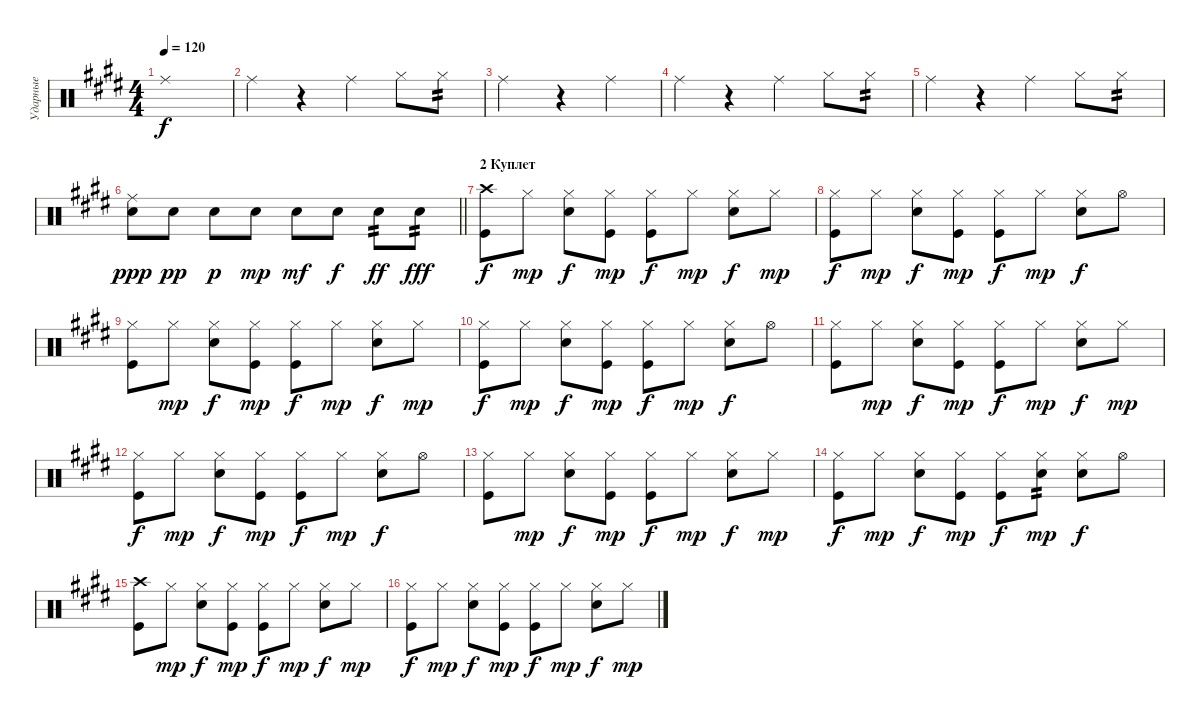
\track ("Ударные" "Ударные") {instrument percussion}
\staff {score}
\articulation defaults
\ts (4 4)
\tempo 120
\clef neutral
\ks e "Ride (middle)".1{dy f}
|
"Ride (middle)".4 r.4 "Ride (middle)".4 "Hi-Hat (closed)".8 "Hi-Hat (closed)".8{tp 2} |
"Ride (middle)".2 r.4 "Ride (middle)".4 |
"Ride (middle)".4 r.4 "Ride (middle)".4 "Hi-Hat (closed)".8 "Hi-Hat (closed)".8{tp 2} |
"Ride (middle)".4 r.4 "Ride (middle)".4 "Hi-Hat (closed)".8 "Hi-Hat (closed)".8{tp 2} |
\barLineRight lightlight
("Ride (middle)" "Snare (hit) 2").8{dy ppp} "Snare (hit) 2".8{dy pp} "Snare (hit) 2".8{dy p} "Snare (hit) 2".8{dy mp} "Snare (hit) 2".8{dy mf} "Snare (hit) 2".8{dy f} "Snare (hit) 2".8{tp 2 dy ff} "Snare (hit) 2".8{tp 2 dy fff} |
\section ("" "2 Куплет")
("Crash high (hit)" "Kick (hit)").8{dy f} "Hi-Hat (closed)".8{dy mp} ("Hi-Hat (closed)" "Snare (hit) 2").8{dy f} ("Hi-Hat (closed)" "Kick (hit)").8{dy mp} ("Hi-Hat (closed)" "Kick (hit)").8{dy f} "Hi-Hat (closed)".8{dy mp} ("Hi-Hat (closed)" "Snare (hit) 2").8{dy f} "Hi-Hat (closed)".8{dy mp} |
("Hi-Hat (closed)" "Kick (hit)").8{dy f} "Hi-Hat (closed)".8{dy mp} ("Hi-Hat (closed)" "Snare (hit) 2").8{dy f} ("Hi-Hat (closed)" "Kick (hit)").8{dy mp} ("Hi-Hat (closed)" "Kick (hit)").8{dy f} "Hi-Hat (closed)".8{dy mp} ("Hi-Hat (closed)" "Snare (hit) 2").8{dy f} "Hi-Hat (open)".8 |
("Hi-Hat (closed)" "Kick (hit)").8 "Hi-Hat (closed)".8{dy mp} ("Hi-Hat (closed)" "Snare (hit) 2").8{dy f} ("Hi-Hat (closed)" "Kick (hit)").8{dy mp} ("Hi-Hat (closed)" "Kick (hit)").8{dy f} "Hi-Hat (closed)".8{dy mp} ("Hi-Hat (closed)" "Snare (hit) 2").8{dy f} "Hi-Hat (closed)".8{dy mp} |
("Hi-Hat (closed)" "Kick (hit)").8{dy f} "Hi-Hat (closed)".8{dy mp} ("Hi-Hat (closed)" "Snare (hit) 2").8{dy f} ("Hi-Hat (closed)" "Kick (hit)").8{dy mp} ("Hi-Hat (closed)" "Kick (hit)").8{dy f} "Hi-Hat (closed)".8{dy mp} ("Hi-Hat (closed)" "Snare (hit) 2").8{dy f} "Hi-Hat (open)".8 |
("Hi-Hat (closed)" "Kick (hit)").8 "Hi-Hat (closed)".8{dy mp} ("Hi-Hat (closed)" "Snare (hit) 2").8{dy f} ("Hi-Hat (closed)" "Kick (hit)").8{dy mp} ("Hi-Hat (closed)" "Kick (hit)").8{dy f} "Hi-Hat (closed)".8{dy mp} ("Hi-Hat (closed)" "Snare (hit) 2").8{dy f} "Hi-Hat (closed)".8{dy mp} |
("Hi-Hat (closed)" "Kick (hit)").8{dy f} "Hi-Hat (closed)".8{dy mp} ("Hi-Hat (closed)" "Snare (hit) 2").8{dy f} ("Hi-Hat (closed)" "Kick (hit)").8{dy mp} ("Hi-Hat (closed)" "Kick (hit)").8{dy f} "Hi-Hat (closed)".8{dy mp} ("Hi-Hat (closed)" "Snare (hit) 2").8{dy f} "Hi-Hat (open)".8 |
("Hi-Hat (closed)" "Kick (hit)").8 "Hi-Hat (closed)".8{dy mp} ("Hi-Hat (closed)" "Snare (hit) 2").8{dy f} ("Hi-Hat (closed)" "Kick (hit)").8{dy mp} ("Hi-Hat (closed)" "Kick (hit)").8{dy f} "Hi-Hat (closed)".8{dy mp} ("Hi-Hat (closed)" "Snare (hit) 2").8{dy f} "Hi-Hat (closed)".8{dy mp} |
("Hi-Hat (closed)" "Kick (hit)").8{dy f} "Hi-Hat (closed)".8{dy mp} ("Hi-Hat (closed)" "Snare (hit) 2").8{dy f} ("Hi-Hat (closed)" "Kick (hit)").8{dy mp} ("Hi-Hat (closed)" "Kick (hit)").8{dy f} ("Hi-Hat (closed)" "Snare (hit) 2").8{tp 2 dy mp} ("Hi-Hat (closed)" "Snare (hit) 2").8{dy f} "Hi-Hat (open)".8 |
("Crash high (hit)" "Kick (hit)").8 "Hi-Hat (closed)".8{dy mp} ("Hi-Hat (closed)" "Snare (hit) 2").8{dy f} ("Hi-Hat (closed)" "Kick (hit)").8{dy mp} ("Hi-Hat (closed)" "Kick (hit)").8{dy f} "Hi-Hat (closed)".8{dy mp} ("Hi-Hat (closed)" "Snare (hit) 2").8{dy f} "Hi-Hat (closed)".8{dy mp} |
("Hi-Hat (closed)" "Kick (hit)").8{dy f} "Hi-Hat (closed)".8{dy mp} ("Hi-Hat (closed)" "Snare (hit) 2").8{dy f} ("Hi-Hat (closed)" "Kick (hit)").8{dy mp} ("Hi-Hat (closed)" "Kick (hit)").8{dy f} "Hi-Hat (closed)".8{dy mp} ("Hi-Hat (closed)" "Snare (hit) 2").8{dy f} "Hi-Hat (closed)".8{dy mp}
